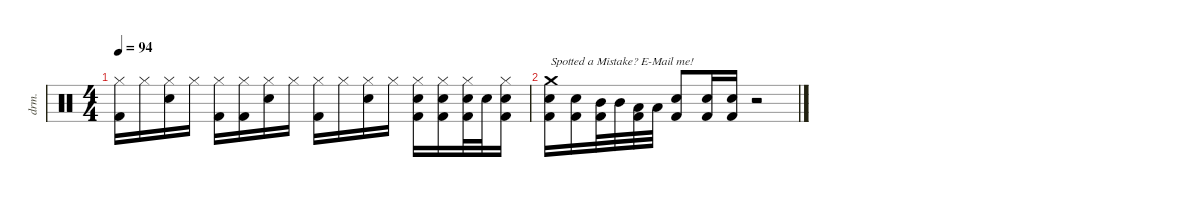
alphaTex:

\defaultSystemsLayout 4
\hideDynamics
\bracketExtendMode nobrackets
\track ("Drums" "drm.") {instrument percussion}
\staff {score}
\articulation defaults
\ts (4 4)
\tempo 94
\clef neutral
\ks c
("Hi-Hat (closed)" "Kick (hit) 2").16{dy f} "Hi-Hat (closed)".16 ("Hi-Hat (closed)" "Snare (hit) 2").16 "Hi-Hat (closed)".16 ("Hi-Hat (closed)" "Kick (hit) 2").16 ("Hi-Hat (closed)" "Kick (hit) 2").16 ("Hi-Hat (closed)" "Snare (hit) 2").16 "Hi-Hat (closed)".16 ("Hi-Hat (closed)" "Kick (hit) 2").16 "Hi-Hat (closed)".16 ("Hi-Hat (closed)" "Snare (hit) 2").16 "Hi-Hat (closed)".16 ("Hi-Hat (closed)" "Snare (hit) 2" "Kick (hit) 2").16 ("Hi-Hat (closed)" "Snare (hit) 2" "Kick (hit) 2").16 ("Hi-Hat (closed)" "Snare (hit) 2" "Kick (hit) 2").32 "Snare (hit) 2".32 ("Hi-Hat (closed)" "Snare (hit) 2" "Kick (hit) 2").16 |
("Crash medium (hit)" "Snare (hit) 2" "Kick (hit) 2").16{txt "Spotted a Mistake? E-Mail me!"} ("Snare (hit) 2" "Kick (hit) 2").16 ("Mid Tom (hit)" "Kick (hit) 2").32 "Mid Tom (hit)".32 ("Low Tom (hit)" "Kick (hit) 2").32 "Low Tom (hit)".32 ("Snare (hit) 2" "Kick (hit) 2").8 ("Snare (hit) 2" "Kick (hit) 2").16 ("Snare (hit) 2" "Kick (hit) 2").16 r.2
